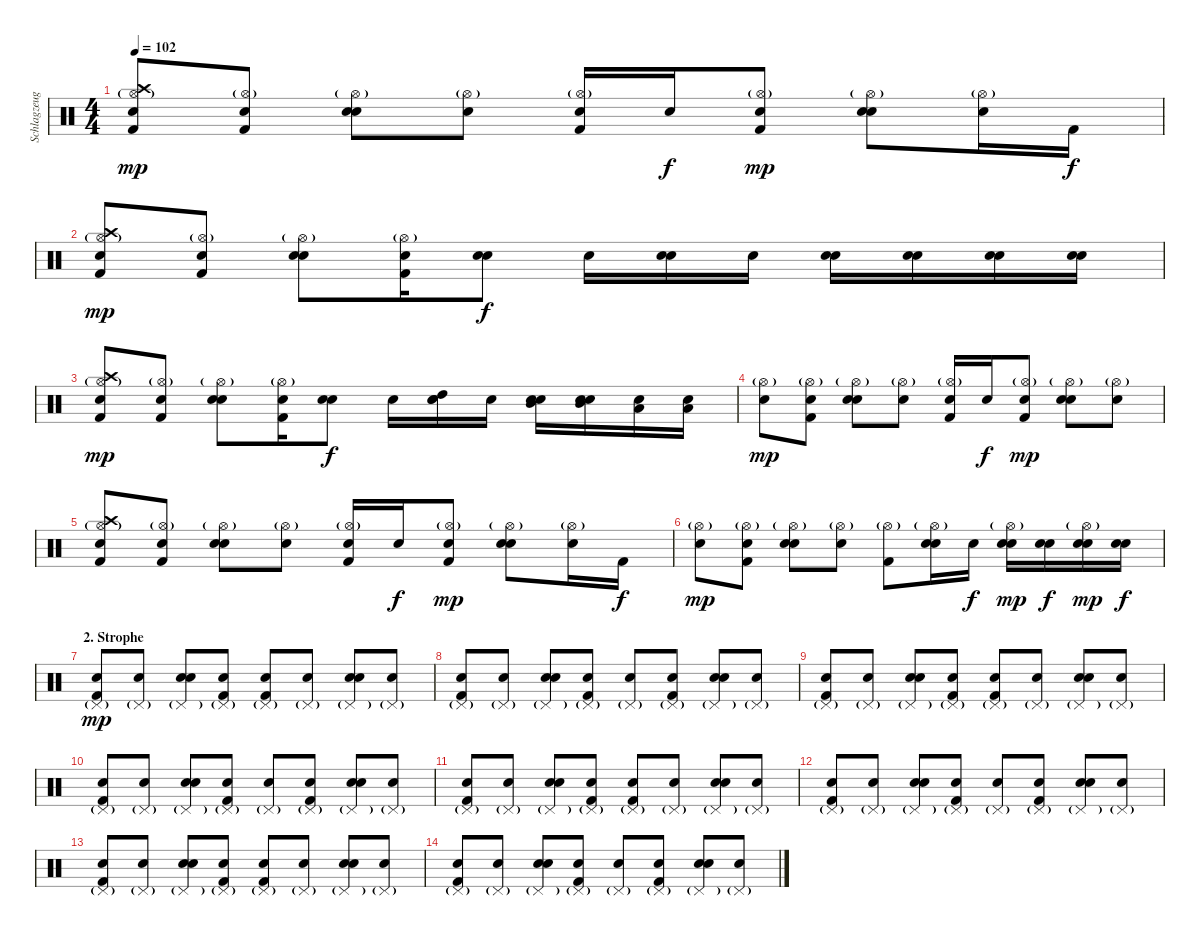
\track ("Schlagzeug" "Schlagzeug") {instrument percussion}
\staff {score}
\articulation defaults
\ts (4 4)
\tempo 102
\clef neutral
\ks c
("Kick (hit) 2" "Crash high (hit)" "Hi-Hat (open)"{g} "Snare (hit)").8{dy mp} ("Kick (hit) 2" "Hi-Hat (open)"{g} "Snare (hit)").8 ("Snare (hit) 2" "Hi-Hat (open)"{g} "Snare (hit)").8 ("Hi-Hat (open)"{g} "Snare (hit)").8 ("Kick (hit) 2" "Hi-Hat (open)"{g} "Snare (hit)").16 "Snare (hit) 2".16{dy f} ("Kick (hit) 2" "Hi-Hat (open)"{g} "Snare (hit)").8{dy mp} ("Snare (hit) 2" "Hi-Hat (open)"{g} "Snare (hit)").8 ("Hi-Hat (open)"{g} "Snare (hit)").16 "Kick (hit) 2".16{dy f} |
("Kick (hit) 2" "Crash high (hit)" "Hi-Hat (open)"{g} "Snare (hit)").8{dy mp} ("Kick (hit) 2" "Hi-Hat (open)"{g} "Snare (hit)").8 ("Snare (hit) 2" "Hi-Hat (open)"{g} "Snare (hit)").8 ("Kick (hit) 2" "Hi-Hat (open)"{g} "Snare (hit)").16 ("Snare (hit) 2" "Snare (hit)").8{dy f} "Snare (hit)".16 ("Snare (hit) 2" "Snare (hit)").16 "Snare (hit)".16 ("Snare (hit) 2" "Snare (hit)").16 ("Snare (hit) 2" "Snare (hit)").16 ("Snare (hit) 2" "Snare (hit)").16 ("Snare (hit) 2" "Snare (hit)").16 |
("Kick (hit) 2" "Crash high (hit)" "Hi-Hat (open)"{g} "Snare (hit)").8{dy mp} ("Kick (hit) 2" "Hi-Hat (open)"{g} "Snare (hit)").8 ("Snare (hit) 2" "Hi-Hat (open)"{g} "Snare (hit)").8 ("Kick (hit) 2" "Hi-Hat (open)"{g} "Snare (hit)").16 ("Snare (hit) 2" "Snare (hit)").8{dy f} "Snare (hit)".16 ("High Tom (hit)" "Snare (hit) 2" "Snare (hit)").16 "Snare (hit)".16 ("Mid Tom (hit)" "Snare (hit) 2" "Snare (hit)").16 ("Mid Tom (hit)" "Snare (hit) 2" "Snare (hit)").16 ("Low Tom (hit)" "Snare (hit)").16 ("Low Tom (hit)" "Snare (hit)").16 |
("Hi-Hat (open)"{g} "Snare (hit)").8{dy mp} ("Kick (hit) 2" "Hi-Hat (open)"{g} "Snare (hit)").8 ("Snare (hit) 2" "Hi-Hat (open)"{g} "Snare (hit)").8 ("Hi-Hat (open)"{g} "Snare (hit)").8 ("Kick (hit) 2" "Hi-Hat (open)"{g} "Snare (hit)").16 "Snare (hit) 2".16{dy f} ("Kick (hit) 2" "Hi-Hat (open)"{g} "Snare (hit)").8{dy mp} ("Snare (hit) 2" "Hi-Hat (open)"{g} "Snare (hit)").8 ("Hi-Hat (open)"{g} "Snare (hit)").8 |
("Kick (hit) 2" "Crash high (hit)" "Hi-Hat (open)"{g} "Snare (hit)").8 ("Kick (hit) 2" "Hi-Hat (open)"{g} "Snare (hit)").8 ("Snare (hit) 2" "Hi-Hat (open)"{g} "Snare (hit)").8 ("Hi-Hat (open)"{g} "Snare (hit)").8 ("Kick (hit) 2" "Hi-Hat (open)"{g} "Snare (hit)").16 "Snare (hit) 2".16{dy f} ("Kick (hit) 2" "Hi-Hat (open)"{g} "Snare (hit)").8{dy mp} ("Snare (hit) 2" "Hi-Hat (open)"{g} "Snare (hit)").8 ("Hi-Hat (open)"{g} "Snare (hit)").16 "Kick (hit) 2".16{dy f} |
("Hi-Hat (open)"{g} "Snare (hit)").8{dy mp} ("Kick (hit) 2" "Hi-Hat (open)"{g} "Snare (hit)").8 ("Snare (hit) 2" "Hi-Hat (open)"{g} "Snare (hit)").8 ("Hi-Hat (open)"{g} "Snare (hit)").8 ("Kick (hit) 2" "Hi-Hat (open)"{g}).8 ("Snare (hit) 2" "Hi-Hat (open)"{g} "Snare (hit)").16 "Snare (hit)".16{dy f} ("Snare (hit) 2" "Hi-Hat (open)"{g} "Snare (hit)").16{dy mp} ("Snare (hit) 2" "Snare (hit)").16{dy f} ("Snare (hit) 2" "Hi-Hat (open)"{g} "Snare (hit)").16{dy mp} ("Snare (hit) 2" "Snare (hit)").16{dy f} |
\section ("" "2. Strophe")
("Kick (hit) 2" "Pedal Hi-Hat (hit)"{g} "Snare (hit)").8{dy mp} ("Pedal Hi-Hat (hit)"{g} "Snare (hit)").8 ("Snare (hit) 2" "Pedal Hi-Hat (hit)"{g} "Snare (hit)").8 ("Kick (hit) 2" "Pedal Hi-Hat (hit)"{g} "Snare (hit)").8 ("Kick (hit) 2" "Pedal Hi-Hat (hit)"{g} "Snare (hit)").8 ("Pedal Hi-Hat (hit)"{g} "Snare (hit)").8 ("Snare (hit) 2" "Pedal Hi-Hat (hit)"{g} "Snare (hit)").8 ("Pedal Hi-Hat (hit)"{g} "Snare (hit)").8 |
("Kick (hit) 2" "Pedal Hi-Hat (hit)"{g} "Snare (hit)").8 ("Pedal Hi-Hat (hit)"{g} "Snare (hit)").8 ("Snare (hit) 2" "Pedal Hi-Hat (hit)"{g} "Snare (hit)").8 ("Kick (hit) 2" "Pedal Hi-Hat (hit)"{g} "Snare (hit)").8 ("Pedal Hi-Hat (hit)"{g} "Snare (hit)").8 ("Kick (hit) 2" "Pedal Hi-Hat (hit)"{g} "Snare (hit)").8 ("Snare (hit) 2" "Pedal Hi-Hat (hit)"{g} "Snare (hit)").8 ("Pedal Hi-Hat (hit)"{g} "Snare (hit)").8 |
("Kick (hit) 2" "Pedal Hi-Hat (hit)"{g} "Snare (hit)").8 ("Pedal Hi-Hat (hit)"{g} "Snare (hit)").8 ("Snare (hit) 2" "Pedal Hi-Hat (hit)"{g} "Snare (hit)").8 ("Kick (hit) 2" "Pedal Hi-Hat (hit)"{g} "Snare (hit)").8 ("Kick (hit) 2" "Pedal Hi-Hat (hit)"{g} "Snare (hit)").8 ("Pedal Hi-Hat (hit)"{g} "Snare (hit)").8 ("Snare (hit) 2" "Pedal Hi-Hat (hit)"{g} "Snare (hit)").8 ("Pedal Hi-Hat (hit)"{g} "Snare (hit)").8 |
("Kick (hit) 2" "Pedal Hi-Hat (hit)"{g} "Snare (hit)").8 ("Pedal Hi-Hat (hit)"{g} "Snare (hit)").8 ("Snare (hit) 2" "Pedal Hi-Hat (hit)"{g} "Snare (hit)").8 ("Kick (hit) 2" "Pedal Hi-Hat (hit)"{g} "Snare (hit)").8 ("Pedal Hi-Hat (hit)"{g} "Snare (hit)").8 ("Kick (hit) 2" "Pedal Hi-Hat (hit)"{g} "Snare (hit)").8 ("Snare (hit) 2" "Pedal Hi-Hat (hit)"{g} "Snare (hit)").8 ("Pedal Hi-Hat (hit)"{g} "Snare (hit)").8 |
("Kick (hit) 2" "Pedal Hi-Hat (hit)"{g} "Snare (hit)").8 ("Pedal Hi-Hat (hit)"{g} "Snare (hit)").8 ("Snare (hit) 2" "Pedal Hi-Hat (hit)"{g} "Snare (hit)").8 ("Kick (hit) 2" "Pedal Hi-Hat (hit)"{g} "Snare (hit)").8 ("Kick (hit) 2" "Pedal Hi-Hat (hit)"{g} "Snare (hit)").8 ("Pedal Hi-Hat (hit)"{g} "Snare (hit)").8 ("Snare (hit) 2" "Pedal Hi-Hat (hit)"{g} "Snare (hit)").8 ("Pedal Hi-Hat (hit)"{g} "Snare (hit)").8 |
("Kick (hit) 2" "Pedal Hi-Hat (hit)"{g} "Snare (hit)").8 ("Pedal Hi-Hat (hit)"{g} "Snare (hit)").8 ("Snare (hit) 2" "Pedal Hi-Hat (hit)"{g} "Snare (hit)").8 ("Kick (hit) 2" "Pedal Hi-Hat (hit)"{g} "Snare (hit)").8 ("Pedal Hi-Hat (hit)"{g} "Snare (hit)").8 ("Kick (hit) 2" "Pedal Hi-Hat (hit)"{g} "Snare (hit)").8 ("Snare (hit) 2" "Pedal Hi-Hat (hit)"{g} "Snare (hit)").8 ("Pedal Hi-Hat (hit)"{g} "Snare (hit)").8 |
("Kick (hit) 2" "Pedal Hi-Hat (hit)"{g} "Snare (hit)").8 ("Pedal Hi-Hat (hit)"{g} "Snare (hit)").8 ("Snare (hit) 2" "Pedal Hi-Hat (hit)"{g} "Snare (hit)").8 ("Kick (hit) 2" "Pedal Hi-Hat (hit)"{g} "Snare (hit)").8 ("Kick (hit) 2" "Pedal Hi-Hat (hit)"{g} "Snare (hit)").8 ("Pedal Hi-Hat (hit)"{g} "Snare (hit)").8 ("Snare (hit) 2" "Pedal Hi-Hat (hit)"{g} "Snare (hit)").8 ("Pedal Hi-Hat (hit)"{g} "Snare (hit)").8 |
("Kick (hit) 2" "Pedal Hi-Hat (hit)"{g} "Snare (hit)").8 ("Pedal Hi-Hat (hit)"{g} "Snare (hit)").8 ("Snare (hit) 2" "Pedal Hi-Hat (hit)"{g} "Snare (hit)").8 ("Kick (hit) 2" "Pedal Hi-Hat (hit)"{g} "Snare (hit)").8 ("Pedal Hi-Hat (hit)"{g} "Snare (hit)").8 ("Kick (hit) 2" "Pedal Hi-Hat (hit)"{g} "Snare (hit)").8 ("Snare (hit) 2" "Pedal Hi-Hat (hit)"{g} "Snare (hit)").8 ("Pedal Hi-Hat (hit)"{g} "Snare (hit)").8
